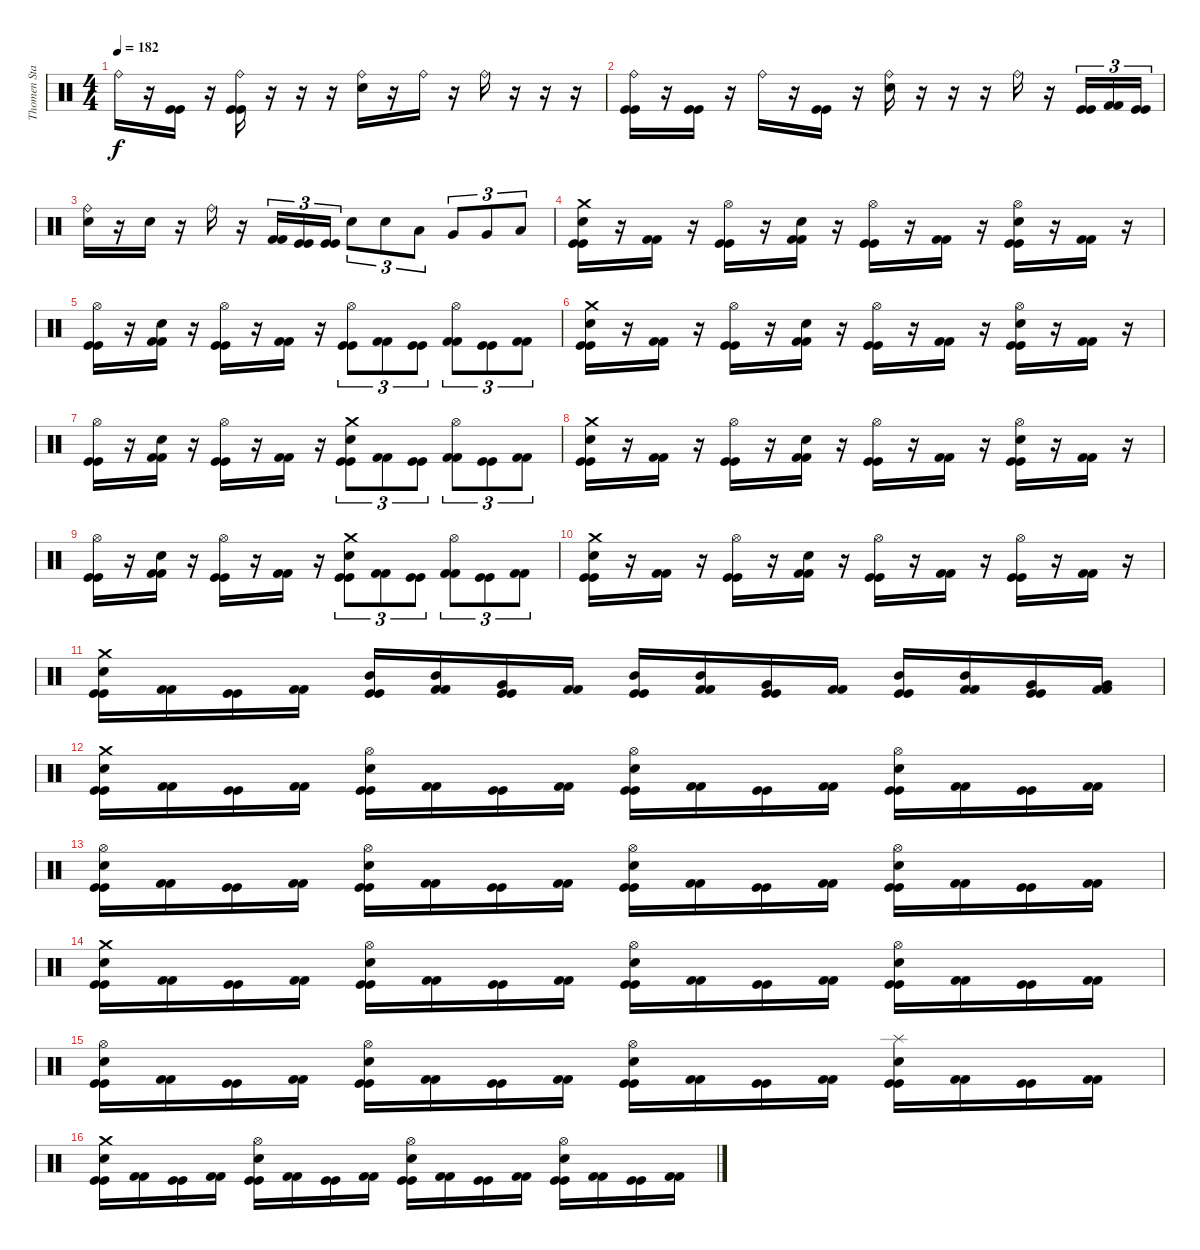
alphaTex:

\track ("Thomen Stauch" "Thomen Sta") {instrument percussion}
\staff {score}
\articulation defaults
\ts (4 4)
\tempo 182
\clef neutral
\ks c "Ride (bell)".16{dy f}
r.16 ("Kick (hit)" "Kick (hit)").16 r.16 ("Ride (bell)" "Kick (hit)" "Kick (hit)").16 r.16 r.16 r.16 ("Ride (bell)" "Snare (hit) 2").16 r.16 "Ride (bell)".16 r.16 "Ride (bell)".16 r.16 r.16 r.16 |
("Ride (bell)" "Kick (hit)" "Kick (hit)").16 r.16 ("Kick (hit)" "Kick (hit)").16 r.16 "Ride (bell)".16 r.16 ("Kick (hit)" "Kick (hit)").16 r.16 ("Ride (bell)" "Snare (hit) 2").16 r.16 r.16 r.16 "Ride (bell)".16 r.16 ("Kick (hit)" "Kick (hit)").16{tu (3 2)} ("Kick (hit) 2" "Kick (hit) 2").16{tu (3 2)} ("Kick (hit)" "Kick (hit)").16{tu (3 2)} |
("Ride (bell)" "Snare (hit) 2").16 r.16 "Snare (hit) 2".16 r.16 "Ride (bell)".16 r.16 ("Kick (hit) 2" "Kick (hit) 2").16{tu (3 2)} ("Kick (hit)" "Kick (hit)").16{tu (3 2)} ("Kick (hit)" "Kick (hit)").16{tu (3 2)} "Snare (hit) 2".8{tu (3 2)} "Snare (hit) 2".8{tu (3 2)} "Low Tom (hit)".8{tu (3 2)} "Very Low Tom (hit)".8{tu (3 2)} "Very Low Tom (hit)".8{tu (3 2)} "Low Floor Tom (hit)".8{tu (3 2)} |
("Crash medium (hit)" "Snare (hit) 2" "Kick (hit)" "Kick (hit)").16 r.16 ("Kick (hit) 2" "Kick (hit) 2").16 r.16 ("Hi-Hat (open)" "Kick (hit)" "Kick (hit)").16 r.16 ("Snare (hit) 2" "Kick (hit) 2" "Kick (hit) 2").16 r.16 ("Hi-Hat (open)" "Kick (hit)" "Kick (hit)").16 r.16 ("Kick (hit) 2" "Kick (hit) 2").16 r.16 ("Hi-Hat (open)" "Snare (hit) 2" "Kick (hit)" "Kick (hit)").16 r.16 ("Kick (hit) 2" "Kick (hit) 2").16 r.16 |
("Hi-Hat (open)" "Kick (hit)" "Kick (hit)").16 r.16 ("Snare (hit) 2" "Kick (hit) 2" "Kick (hit) 2").16 r.16 ("Hi-Hat (open)" "Kick (hit)" "Kick (hit)").16 r.16 ("Kick (hit) 2" "Kick (hit) 2").16 r.16 ("Hi-Hat (open)" "Kick (hit)" "Kick (hit)").8{tu (3 2)} ("Kick (hit) 2" "Kick (hit) 2").8{tu (3 2)} ("Kick (hit)" "Kick (hit)").8{tu (3 2)} ("Hi-Hat (open)" "Kick (hit) 2" "Kick (hit) 2").8{tu (3 2)} ("Kick (hit)" "Kick (hit)").8{tu (3 2)} ("Kick (hit) 2" "Kick (hit) 2").8{tu (3 2)} |
("Crash medium (hit)" "Snare (hit) 2" "Kick (hit)" "Kick (hit)").16 r.16 ("Kick (hit) 2" "Kick (hit) 2").16 r.16 ("Hi-Hat (open)" "Kick (hit)" "Kick (hit)").16 r.16 ("Snare (hit) 2" "Kick (hit) 2" "Kick (hit) 2").16 r.16 ("Hi-Hat (open)" "Kick (hit)" "Kick (hit)").16 r.16 ("Kick (hit) 2" "Kick (hit) 2").16 r.16 ("Hi-Hat (open)" "Snare (hit) 2" "Kick (hit)" "Kick (hit)").16 r.16 ("Kick (hit) 2" "Kick (hit) 2").16 r.16 |
("Hi-Hat (open)" "Kick (hit)" "Kick (hit)").16 r.16 ("Snare (hit) 2" "Kick (hit) 2" "Kick (hit) 2").16 r.16 ("Hi-Hat (open)" "Kick (hit)" "Kick (hit)").16 r.16 ("Kick (hit) 2" "Kick (hit) 2").16 r.16 ("Crash medium (hit)" "Snare (hit) 2" "Kick (hit)" "Kick (hit)").8{tu (3 2)} ("Kick (hit) 2" "Kick (hit) 2").8{tu (3 2)} ("Kick (hit)" "Kick (hit)").8{tu (3 2)} ("Hi-Hat (open)" "Kick (hit) 2" "Kick (hit) 2").8{tu (3 2)} ("Kick (hit)" "Kick (hit)").8{tu (3 2)} ("Kick (hit) 2" "Kick (hit) 2").8{tu (3 2)} |
("Crash medium (hit)" "Snare (hit) 2" "Kick (hit)" "Kick (hit)").16 r.16 ("Kick (hit) 2" "Kick (hit) 2").16 r.16 ("Hi-Hat (open)" "Kick (hit)" "Kick (hit)").16 r.16 ("Snare (hit) 2" "Kick (hit) 2" "Kick (hit) 2").16 r.16 ("Hi-Hat (open)" "Kick (hit)" "Kick (hit)").16 r.16 ("Kick (hit) 2" "Kick (hit) 2").16 r.16 ("Hi-Hat (open)" "Snare (hit) 2" "Kick (hit)" "Kick (hit)").16 r.16 ("Kick (hit) 2" "Kick (hit) 2").16 r.16 |
("Hi-Hat (open)" "Kick (hit)" "Kick (hit)").16 r.16 ("Snare (hit) 2" "Kick (hit) 2" "Kick (hit) 2").16 r.16 ("Hi-Hat (open)" "Kick (hit)" "Kick (hit)").16 r.16 ("Kick (hit) 2" "Kick (hit) 2").16 r.16 ("Crash medium (hit)" "Snare (hit) 2" "Kick (hit)" "Kick (hit)").8{tu (3 2)} ("Kick (hit) 2" "Kick (hit) 2").8{tu (3 2)} ("Kick (hit)" "Kick (hit)").8{tu (3 2)} ("Hi-Hat (open)" "Kick (hit) 2" "Kick (hit) 2").8{tu (3 2)} ("Kick (hit)" "Kick (hit)").8{tu (3 2)} ("Kick (hit) 2" "Kick (hit) 2").8{tu (3 2)} |
("Crash medium (hit)" "Snare (hit) 2" "Kick (hit)" "Kick (hit)").16 r.16 ("Kick (hit) 2" "Kick (hit) 2").16 r.16 ("Hi-Hat (open)" "Kick (hit)" "Kick (hit)").16 r.16 ("Snare (hit) 2" "Kick (hit) 2" "Kick (hit) 2").16 r.16 ("Hi-Hat (open)" "Kick (hit)" "Kick (hit)").16 r.16 ("Kick (hit) 2" "Kick (hit) 2").16 r.16 ("Hi-Hat (open)" "Kick (hit)" "Kick (hit)").16 r.16 ("Kick (hit) 2" "Kick (hit) 2").16 r.16 |
("Crash medium (hit)" "Snare (hit) 2" "Kick (hit)" "Kick (hit)").16 ("Kick (hit) 2" "Kick (hit) 2").16 ("Kick (hit)" "Kick (hit)").16 ("Kick (hit) 2" "Kick (hit) 2").16 ("Mid Tom (hit)" "Kick (hit)" "Kick (hit)").16 ("Mid Tom (hit)" "Kick (hit) 2" "Kick (hit) 2").16 ("Very Low Tom (hit)" "Kick (hit)" "Kick (hit)").16 ("Kick (hit) 2" "Kick (hit) 2").16 ("Mid Tom (hit)" "Kick (hit)" "Kick (hit)").16 ("Mid Tom (hit)" "Kick (hit) 2" "Kick (hit) 2").16 ("Very Low Tom (hit)" "Kick (hit)" "Kick (hit)").16 ("Kick (hit) 2" "Kick (hit) 2").16 ("Mid Tom (hit)" "Kick (hit)" "Kick (hit)").16 ("Mid Tom (hit)" "Kick (hit) 2" "Kick (hit) 2").16 ("Very Low Tom (hit)" "Kick (hit)" "Kick (hit)").16 ("Very Low Tom (hit)" "Kick (hit) 2" "Kick (hit) 2").16 |
("Crash medium (hit)" "Snare (hit) 2" "Kick (hit)" "Kick (hit)").16 ("Kick (hit) 2" "Kick (hit) 2").16 ("Kick (hit)" "Kick (hit)").16 ("Kick (hit) 2" "Kick (hit) 2").16 ("Hi-Hat (open)" "Snare (hit) 2" "Kick (hit)" "Kick (hit)").16 ("Kick (hit) 2" "Kick (hit) 2").16 ("Kick (hit)" "Kick (hit)").16 ("Kick (hit) 2" "Kick (hit) 2").16 ("Hi-Hat (open)" "Snare (hit) 2" "Kick (hit)" "Kick (hit)").16 ("Kick (hit) 2" "Kick (hit) 2").16 ("Kick (hit)" "Kick (hit)").16 ("Kick (hit) 2" "Kick (hit) 2").16 ("Hi-Hat (open)" "Snare (hit) 2" "Kick (hit)" "Kick (hit)").16 ("Kick (hit) 2" "Kick (hit) 2").16 ("Kick (hit)" "Kick (hit)").16 ("Kick (hit) 2" "Kick (hit) 2").16 |
("Hi-Hat (open)" "Snare (hit) 2" "Kick (hit)" "Kick (hit)").16 ("Kick (hit) 2" "Kick (hit) 2").16 ("Kick (hit)" "Kick (hit)").16 ("Kick (hit) 2" "Kick (hit) 2").16 ("Hi-Hat (open)" "Snare (hit) 2" "Kick (hit)" "Kick (hit)").16 ("Kick (hit) 2" "Kick (hit) 2").16 ("Kick (hit)" "Kick (hit)").16 ("Kick (hit) 2" "Kick (hit) 2").16 ("Hi-Hat (open)" "Snare (hit) 2" "Kick (hit)" "Kick (hit)").16 ("Kick (hit) 2" "Kick (hit) 2").16 ("Kick (hit)" "Kick (hit)").16 ("Kick (hit) 2" "Kick (hit) 2").16 ("Hi-Hat (open)" "Snare (hit) 2" "Kick (hit)" "Kick (hit)").16 ("Kick (hit) 2" "Kick (hit) 2").16 ("Kick (hit)" "Kick (hit)").16 ("Kick (hit) 2" "Kick (hit) 2").16 |
("Crash medium (hit)" "Snare (hit) 2" "Kick (hit)" "Kick (hit)").16 ("Kick (hit) 2" "Kick (hit) 2").16 ("Kick (hit)" "Kick (hit)").16 ("Kick (hit) 2" "Kick (hit) 2").16 ("Hi-Hat (open)" "Snare (hit) 2" "Kick (hit)" "Kick (hit)").16 ("Kick (hit) 2" "Kick (hit) 2").16 ("Kick (hit)" "Kick (hit)").16 ("Kick (hit) 2" "Kick (hit) 2").16 ("Hi-Hat (open)" "Snare (hit) 2" "Kick (hit)" "Kick (hit)").16 ("Kick (hit) 2" "Kick (hit) 2").16 ("Kick (hit)" "Kick (hit)").16 ("Kick (hit) 2" "Kick (hit) 2").16 ("Hi-Hat (open)" "Snare (hit) 2" "Kick (hit)" "Kick (hit)").16 ("Kick (hit) 2" "Kick (hit) 2").16 ("Kick (hit)" "Kick (hit)").16 ("Kick (hit) 2" "Kick (hit) 2").16 |
("Hi-Hat (open)" "Snare (hit) 2" "Kick (hit)" "Kick (hit)").16 ("Kick (hit) 2" "Kick (hit) 2").16 ("Kick (hit)" "Kick (hit)").16 ("Kick (hit) 2" "Kick (hit) 2").16 ("Hi-Hat (open)" "Snare (hit) 2" "Kick (hit)" "Kick (hit)").16 ("Kick (hit) 2" "Kick (hit) 2").16 ("Kick (hit)" "Kick (hit)").16 ("Kick (hit) 2" "Kick (hit) 2").16 ("Hi-Hat (open)" "Snare (hit) 2" "Kick (hit)" "Kick (hit)").16 ("Kick (hit) 2" "Kick (hit) 2").16 ("Kick (hit)" "Kick (hit)").16 ("Kick (hit) 2" "Kick (hit) 2").16 ("Splash (hit)" "Snare (hit) 2" "Kick (hit)" "Kick (hit)").16 ("Kick (hit) 2" "Kick (hit) 2").16 ("Kick (hit)" "Kick (hit)").16 ("Kick (hit) 2" "Kick (hit) 2").16 |
("Crash medium (hit)" "Snare (hit) 2" "Kick (hit)" "Kick (hit)").16 ("Kick (hit) 2" "Kick (hit) 2").16 ("Kick (hit)" "Kick (hit)").16 ("Kick (hit) 2" "Kick (hit) 2").16 ("Hi-Hat (open)" "Snare (hit) 2" "Kick (hit)" "Kick (hit)").16 ("Kick (hit) 2" "Kick (hit) 2").16 ("Kick (hit)" "Kick (hit)").16 ("Kick (hit) 2" "Kick (hit) 2").16 ("Hi-Hat (open)" "Snare (hit) 2" "Kick (hit)" "Kick (hit)").16 ("Kick (hit) 2" "Kick (hit) 2").16 ("Kick (hit)" "Kick (hit)").16 ("Kick (hit) 2" "Kick (hit) 2").16 ("Hi-Hat (open)" "Snare (hit) 2" "Kick (hit)" "Kick (hit)").16 ("Kick (hit) 2" "Kick (hit) 2").16 ("Kick (hit)" "Kick (hit)").16 ("Kick (hit) 2" "Kick (hit) 2").16
